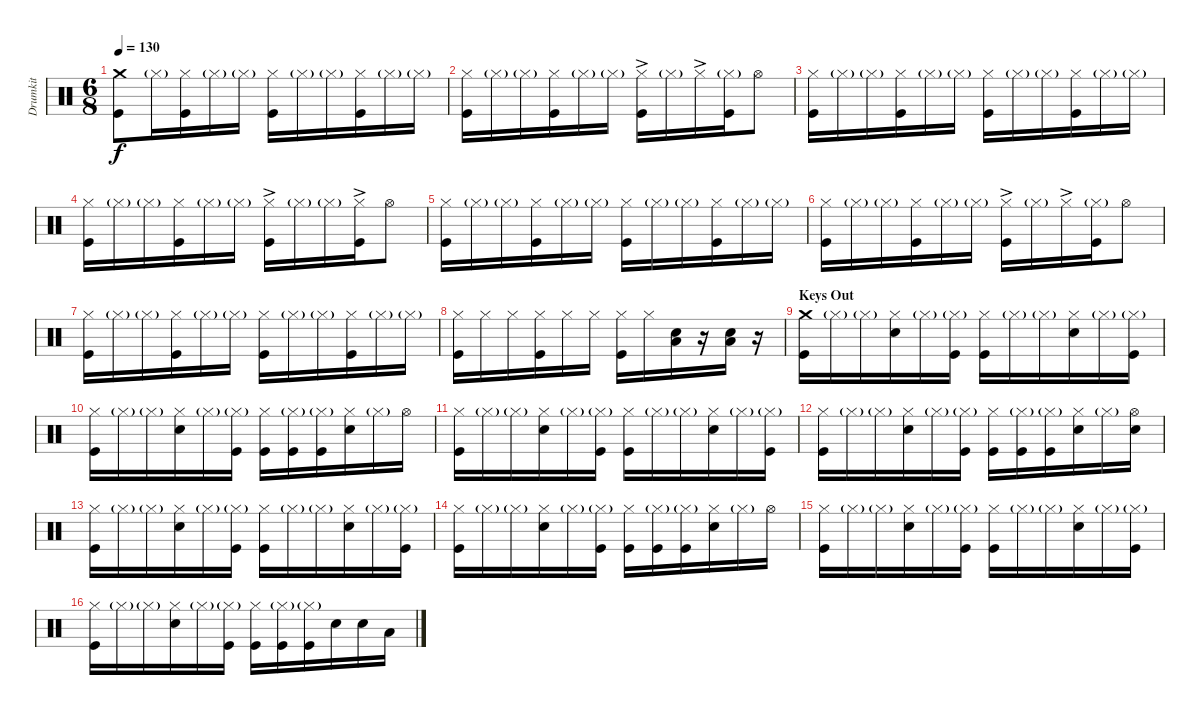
\track ("Drumkit" "Drumkit") {instrument percussion}
\staff {score}
\articulation defaults
\ts (6 8)
\tempo 130
\clef neutral
\ks c
("Kick (hit)" "Crash medium (hit)").8{dy f} "Hi-Hat (closed)"{g}.16 ("Hi-Hat (closed)" "Kick (hit)").16 "Hi-Hat (closed)"{g}.16 "Hi-Hat (closed)"{g}.16 ("Hi-Hat (closed)" "Kick (hit)").16 "Hi-Hat (closed)"{g}.16 "Hi-Hat (closed)"{g}.16 ("Hi-Hat (closed)" "Kick (hit)").16 "Hi-Hat (closed)"{g}.16 "Hi-Hat (closed)"{g}.16 |
("Hi-Hat (closed)" "Kick (hit)").16 "Hi-Hat (closed)"{g}.16 "Hi-Hat (closed)"{g}.16 ("Hi-Hat (closed)" "Kick (hit)").16 "Hi-Hat (closed)"{g}.16 "Hi-Hat (closed)"{g}.16 ("Hi-Hat (closed)"{ac} "Kick (hit)").16 "Hi-Hat (closed)"{g}.16 "Hi-Hat (closed)"{ac}.16 ("Hi-Hat (closed)"{g} "Kick (hit)").16 "Hi-Hat (open)".8 |
("Hi-Hat (closed)" "Kick (hit)").16 "Hi-Hat (closed)"{g}.16 "Hi-Hat (closed)"{g}.16 ("Hi-Hat (closed)" "Kick (hit)").16 "Hi-Hat (closed)"{g}.16 "Hi-Hat (closed)"{g}.16 ("Hi-Hat (closed)" "Kick (hit)").16 "Hi-Hat (closed)"{g}.16 "Hi-Hat (closed)"{g}.16 ("Hi-Hat (closed)" "Kick (hit)").16 "Hi-Hat (closed)"{g}.16 "Hi-Hat (closed)"{g}.16 |
("Hi-Hat (closed)" "Kick (hit)").16 "Hi-Hat (closed)"{g}.16 "Hi-Hat (closed)"{g}.16 ("Hi-Hat (closed)" "Kick (hit)").16 "Hi-Hat (closed)"{g}.16 "Hi-Hat (closed)"{g}.16 ("Hi-Hat (closed)"{ac} "Kick (hit)").16 "Hi-Hat (closed)"{g}.16 "Hi-Hat (closed)"{g}.16 ("Hi-Hat (closed)"{ac} "Kick (hit)").16 "Hi-Hat (open)".8 |
("Hi-Hat (closed)" "Kick (hit)").16 "Hi-Hat (closed)"{g}.16 "Hi-Hat (closed)"{g}.16 ("Hi-Hat (closed)" "Kick (hit)").16 "Hi-Hat (closed)"{g}.16 "Hi-Hat (closed)"{g}.16 ("Hi-Hat (closed)" "Kick (hit)").16 "Hi-Hat (closed)"{g}.16 "Hi-Hat (closed)"{g}.16 ("Hi-Hat (closed)" "Kick (hit)").16 "Hi-Hat (closed)"{g}.16 "Hi-Hat (closed)"{g}.16 |
("Hi-Hat (closed)" "Kick (hit)").16 "Hi-Hat (closed)"{g}.16 "Hi-Hat (closed)"{g}.16 ("Hi-Hat (closed)" "Kick (hit)").16 "Hi-Hat (closed)"{g}.16 "Hi-Hat (closed)"{g}.16 ("Hi-Hat (closed)"{ac} "Kick (hit)").16 "Hi-Hat (closed)"{g}.16 "Hi-Hat (closed)"{ac}.16 ("Hi-Hat (closed)"{g} "Kick (hit)").16 "Hi-Hat (open)".8 |
("Hi-Hat (closed)" "Kick (hit)").16 "Hi-Hat (closed)"{g}.16 "Hi-Hat (closed)"{g}.16 ("Hi-Hat (closed)" "Kick (hit)").16 "Hi-Hat (closed)"{g}.16 "Hi-Hat (closed)"{g}.16 ("Hi-Hat (closed)" "Kick (hit)").16 "Hi-Hat (closed)"{g}.16 "Hi-Hat (closed)"{g}.16 ("Hi-Hat (closed)" "Kick (hit)").16 "Hi-Hat (closed)"{g}.16 "Hi-Hat (closed)"{g}.16 |
("Hi-Hat (closed)" "Kick (hit)").16 "Hi-Hat (closed)".16 "Hi-Hat (closed)".16 ("Hi-Hat (closed)" "Kick (hit)").16 "Hi-Hat (closed)".16 "Hi-Hat (closed)".16 ("Hi-Hat (closed)" "Kick (hit)").16 "Hi-Hat (closed)".16 ("Low Tom (hit)" "Snare (hit) 2").16 r.16 ("Snare (hit) 2" "Low Tom (hit)").16 r.16 |
\section ("" "Keys Out")
("Kick (hit)" "Crash medium (hit)").16 "Hi-Hat (closed)"{g}.16 "Hi-Hat (closed)"{g}.16 ("Hi-Hat (closed)" "Snare (hit) 2").16 "Hi-Hat (closed)"{g}.16 ("Hi-Hat (closed)"{g} "Kick (hit)").16 ("Hi-Hat (closed)" "Kick (hit)").16 "Hi-Hat (closed)"{g}.16 "Hi-Hat (closed)"{g}.16 ("Hi-Hat (closed)" "Snare (hit) 2").16 "Hi-Hat (closed)"{g}.16 ("Hi-Hat (closed)"{g} "Kick (hit)").16 |
("Hi-Hat (closed)" "Kick (hit)").16 "Hi-Hat (closed)"{g}.16 "Hi-Hat (closed)"{g}.16 ("Hi-Hat (closed)" "Snare (hit) 2").16 "Hi-Hat (closed)"{g}.16 ("Hi-Hat (closed)"{g} "Kick (hit)").16 ("Kick (hit)" "Hi-Hat (closed)").16 ("Kick (hit)" "Hi-Hat (closed)"{g}).16 ("Kick (hit)" "Hi-Hat (closed)"{g}).16 ("Snare (hit) 2" "Hi-Hat (closed)").16 "Hi-Hat (closed)"{g}.16 "Hi-Hat (open)".16 |
("Kick (hit)" "Hi-Hat (closed)").16 "Hi-Hat (closed)"{g}.16 "Hi-Hat (closed)"{g}.16 ("Hi-Hat (closed)" "Snare (hit) 2").16 "Hi-Hat (closed)"{g}.16 ("Hi-Hat (closed)"{g} "Kick (hit)").16 ("Hi-Hat (closed)" "Kick (hit)").16 "Hi-Hat (closed)"{g}.16 "Hi-Hat (closed)"{g}.16 ("Hi-Hat (closed)" "Snare (hit) 2").16 "Hi-Hat (closed)"{g}.16 ("Hi-Hat (closed)"{g} "Kick (hit)").16 |
("Hi-Hat (closed)" "Kick (hit)").16 "Hi-Hat (closed)"{g}.16 "Hi-Hat (closed)"{g}.16 ("Hi-Hat (closed)" "Snare (hit) 2").16 "Hi-Hat (closed)"{g}.16 ("Hi-Hat (closed)"{g} "Kick (hit)").16 ("Kick (hit)" "Hi-Hat (closed)").16 ("Kick (hit)" "Hi-Hat (closed)"{g}).16 ("Kick (hit)" "Hi-Hat (closed)"{g}).16 ("Snare (hit) 2" "Hi-Hat (closed)").16 "Hi-Hat (closed)"{g}.16 ("Hi-Hat (open)" "Snare (hit) 2").16 |
("Kick (hit)" "Hi-Hat (closed)").16 "Hi-Hat (closed)"{g}.16 "Hi-Hat (closed)"{g}.16 ("Hi-Hat (closed)" "Snare (hit) 2").16 "Hi-Hat (closed)"{g}.16 ("Hi-Hat (closed)"{g} "Kick (hit)").16 ("Hi-Hat (closed)" "Kick (hit)").16 "Hi-Hat (closed)"{g}.16 "Hi-Hat (closed)"{g}.16 ("Hi-Hat (closed)" "Snare (hit) 2").16 "Hi-Hat (closed)"{g}.16 ("Hi-Hat (closed)"{g} "Kick (hit)").16 |
("Hi-Hat (closed)" "Kick (hit)").16 "Hi-Hat (closed)"{g}.16 "Hi-Hat (closed)"{g}.16 ("Hi-Hat (closed)" "Snare (hit) 2").16 "Hi-Hat (closed)"{g}.16 ("Hi-Hat (closed)"{g} "Kick (hit)").16 ("Kick (hit)" "Hi-Hat (closed)").16 ("Kick (hit)" "Hi-Hat (closed)"{g}).16 ("Kick (hit)" "Hi-Hat (closed)"{g}).16 ("Snare (hit) 2" "Hi-Hat (closed)").16 "Hi-Hat (closed)"{g}.16 "Hi-Hat (open)".16 |
("Kick (hit)" "Hi-Hat (closed)").16 "Hi-Hat (closed)"{g}.16 "Hi-Hat (closed)"{g}.16 ("Hi-Hat (closed)" "Snare (hit) 2").16 "Hi-Hat (closed)"{g}.16 ("Hi-Hat (closed)"{g} "Kick (hit)").16 ("Hi-Hat (closed)" "Kick (hit)").16 "Hi-Hat (closed)"{g}.16 "Hi-Hat (closed)"{g}.16 ("Hi-Hat (closed)" "Snare (hit) 2").16 "Hi-Hat (closed)"{g}.16 ("Hi-Hat (closed)"{g} "Kick (hit)").16 |
("Hi-Hat (closed)" "Kick (hit)").16 "Hi-Hat (closed)"{g}.16 "Hi-Hat (closed)"{g}.16 ("Hi-Hat (closed)" "Snare (hit) 2").16 "Hi-Hat (closed)"{g}.16 ("Hi-Hat (closed)"{g} "Kick (hit)").16 ("Kick (hit)" "Hi-Hat (closed)").16 ("Kick (hit)" "Hi-Hat (closed)"{g}).16 ("Kick (hit)" "Hi-Hat (closed)"{g}).16 "Snare (hit) 2".16 "Snare (hit) 2".16 "Low Tom (hit)".16
